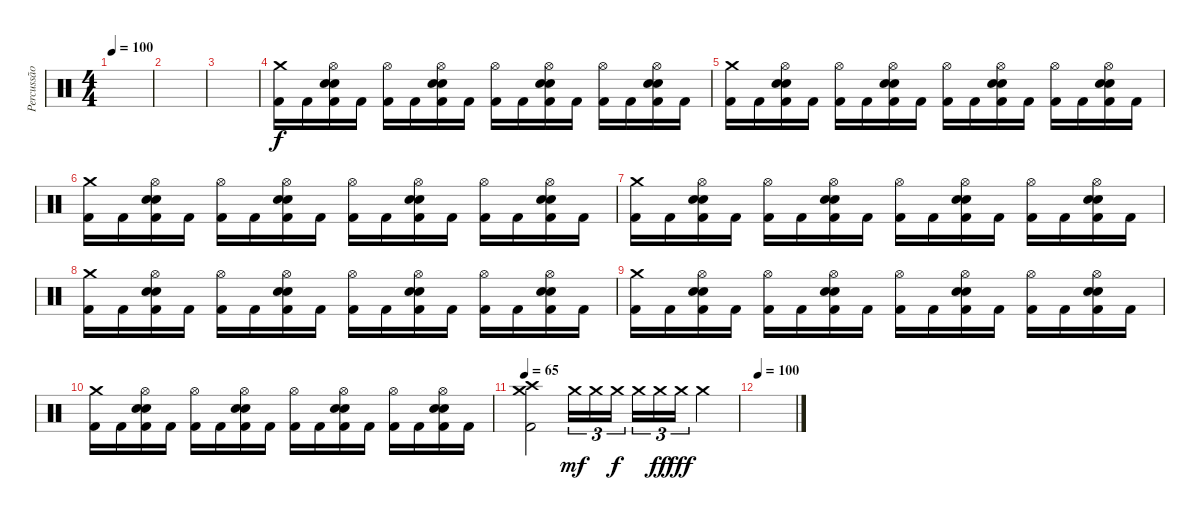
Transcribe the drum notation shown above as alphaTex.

\track ("Percussão" "Percussão") {instrument percussion}
\staff {score}
\articulation defaults
\ts (4 4)
\tempo 100
\clef neutral
\ks c
|
|
|
("Crash medium (hit)" "Kick (hit) 2").16 "Kick (hit) 2".16 ("Hi-Hat (open)" "Electric Snare (hit)" "Snare (hit) 2" "Kick (hit) 2").16 "Kick (hit) 2".16 ("Hi-Hat (open)" "Kick (hit) 2").16 "Kick (hit) 2".16 ("Hi-Hat (open)" "Electric Snare (hit)" "Snare (hit) 2" "Kick (hit) 2").16 "Kick (hit) 2".16 ("Hi-Hat (open)" "Kick (hit) 2").16 "Kick (hit) 2".16 ("Hi-Hat (open)" "Electric Snare (hit)" "Snare (hit) 2" "Kick (hit) 2").16 "Kick (hit) 2".16 ("Hi-Hat (open)" "Kick (hit) 2").16 "Kick (hit) 2".16 ("Hi-Hat (open)" "Electric Snare (hit)" "Snare (hit) 2" "Kick (hit) 2").16 "Kick (hit) 2".16 |
("Crash medium (hit)" "Kick (hit) 2").16 "Kick (hit) 2".16 ("Hi-Hat (open)" "Electric Snare (hit)" "Snare (hit) 2" "Kick (hit) 2").16 "Kick (hit) 2".16 ("Hi-Hat (open)" "Kick (hit) 2").16 "Kick (hit) 2".16 ("Hi-Hat (open)" "Electric Snare (hit)" "Snare (hit) 2" "Kick (hit) 2").16 "Kick (hit) 2".16 ("Hi-Hat (open)" "Kick (hit) 2").16 "Kick (hit) 2".16 ("Hi-Hat (open)" "Electric Snare (hit)" "Snare (hit) 2" "Kick (hit) 2").16 "Kick (hit) 2".16 ("Hi-Hat (open)" "Kick (hit) 2").16 "Kick (hit) 2".16 ("Hi-Hat (open)" "Electric Snare (hit)" "Snare (hit) 2" "Kick (hit) 2").16 "Kick (hit) 2".16 |
("Crash medium (hit)" "Kick (hit) 2").16 "Kick (hit) 2".16 ("Hi-Hat (open)" "Electric Snare (hit)" "Snare (hit) 2" "Kick (hit) 2").16 "Kick (hit) 2".16 ("Hi-Hat (open)" "Kick (hit) 2").16 "Kick (hit) 2".16 ("Hi-Hat (open)" "Electric Snare (hit)" "Snare (hit) 2" "Kick (hit) 2").16 "Kick (hit) 2".16 ("Hi-Hat (open)" "Kick (hit) 2").16 "Kick (hit) 2".16 ("Hi-Hat (open)" "Electric Snare (hit)" "Snare (hit) 2" "Kick (hit) 2").16 "Kick (hit) 2".16 ("Hi-Hat (open)" "Kick (hit) 2").16 "Kick (hit) 2".16 ("Hi-Hat (open)" "Electric Snare (hit)" "Snare (hit) 2" "Kick (hit) 2").16 "Kick (hit) 2".16 |
("Crash medium (hit)" "Kick (hit) 2").16 "Kick (hit) 2".16 ("Hi-Hat (open)" "Electric Snare (hit)" "Snare (hit) 2" "Kick (hit) 2").16 "Kick (hit) 2".16 ("Hi-Hat (open)" "Kick (hit) 2").16 "Kick (hit) 2".16 ("Hi-Hat (open)" "Electric Snare (hit)" "Snare (hit) 2" "Kick (hit) 2").16 "Kick (hit) 2".16 ("Hi-Hat (open)" "Kick (hit) 2").16 "Kick (hit) 2".16 ("Hi-Hat (open)" "Electric Snare (hit)" "Snare (hit) 2" "Kick (hit) 2").16 "Kick (hit) 2".16 ("Hi-Hat (open)" "Kick (hit) 2").16 "Kick (hit) 2".16 ("Hi-Hat (open)" "Electric Snare (hit)" "Snare (hit) 2" "Kick (hit) 2").16 "Kick (hit) 2".16 |
("Crash medium (hit)" "Kick (hit) 2").16 "Kick (hit) 2".16 ("Hi-Hat (open)" "Electric Snare (hit)" "Snare (hit) 2" "Kick (hit) 2").16 "Kick (hit) 2".16 ("Hi-Hat (open)" "Kick (hit) 2").16 "Kick (hit) 2".16 ("Hi-Hat (open)" "Electric Snare (hit)" "Snare (hit) 2" "Kick (hit) 2").16 "Kick (hit) 2".16 ("Hi-Hat (open)" "Kick (hit) 2").16 "Kick (hit) 2".16 ("Hi-Hat (open)" "Electric Snare (hit)" "Snare (hit) 2" "Kick (hit) 2").16 "Kick (hit) 2".16 ("Hi-Hat (open)" "Kick (hit) 2").16 "Kick (hit) 2".16 ("Hi-Hat (open)" "Electric Snare (hit)" "Snare (hit) 2" "Kick (hit) 2").16 "Kick (hit) 2".16 |
("Crash medium (hit)" "Kick (hit) 2").16 "Kick (hit) 2".16 ("Hi-Hat (open)" "Electric Snare (hit)" "Snare (hit) 2" "Kick (hit) 2").16 "Kick (hit) 2".16 ("Hi-Hat (open)" "Kick (hit) 2").16 "Kick (hit) 2".16 ("Hi-Hat (open)" "Electric Snare (hit)" "Snare (hit) 2" "Kick (hit) 2").16 "Kick (hit) 2".16 ("Hi-Hat (open)" "Kick (hit) 2").16 "Kick (hit) 2".16 ("Hi-Hat (open)" "Electric Snare (hit)" "Snare (hit) 2" "Kick (hit) 2").16 "Kick (hit) 2".16 ("Hi-Hat (open)" "Kick (hit) 2").16 "Kick (hit) 2".16 ("Hi-Hat (open)" "Electric Snare (hit)" "Snare (hit) 2" "Kick (hit) 2").16 "Kick (hit) 2".16 |
("Crash medium (hit)" "Kick (hit) 2").16 "Kick (hit) 2".16 ("Hi-Hat (open)" "Electric Snare (hit)" "Snare (hit) 2" "Kick (hit) 2").16 "Kick (hit) 2".16 ("Hi-Hat (open)" "Kick (hit) 2").16 "Kick (hit) 2".16 ("Hi-Hat (open)" "Electric Snare (hit)" "Snare (hit) 2" "Kick (hit) 2").16 "Kick (hit) 2".16 ("Hi-Hat (open)" "Kick (hit) 2").16 "Kick (hit) 2".16 ("Hi-Hat (open)" "Electric Snare (hit)" "Snare (hit) 2" "Kick (hit) 2").16 "Kick (hit) 2".16 ("Hi-Hat (open)" "Kick (hit) 2").16 "Kick (hit) 2".16 ("Hi-Hat (open)" "Electric Snare (hit)" "Snare (hit) 2" "Kick (hit) 2").16 "Kick (hit) 2".16 |
\tempo 65
("Crash medium (hit)" "Crash high (hit)" "Kick (hit) 2").2 "Crash medium (hit)".16{tu (3 2) dy mf} "Crash medium (hit)".16{tu (3 2)} "Crash medium (hit)".16{tu (3 2) dy f} "Crash medium (hit)".16{tu (3 2)} "Crash medium (hit)".16{tu (3 2) dy ff} "Crash medium (hit)".16{tu (3 2) dy fff} "Crash medium (hit)".4 |
\tempo 100
